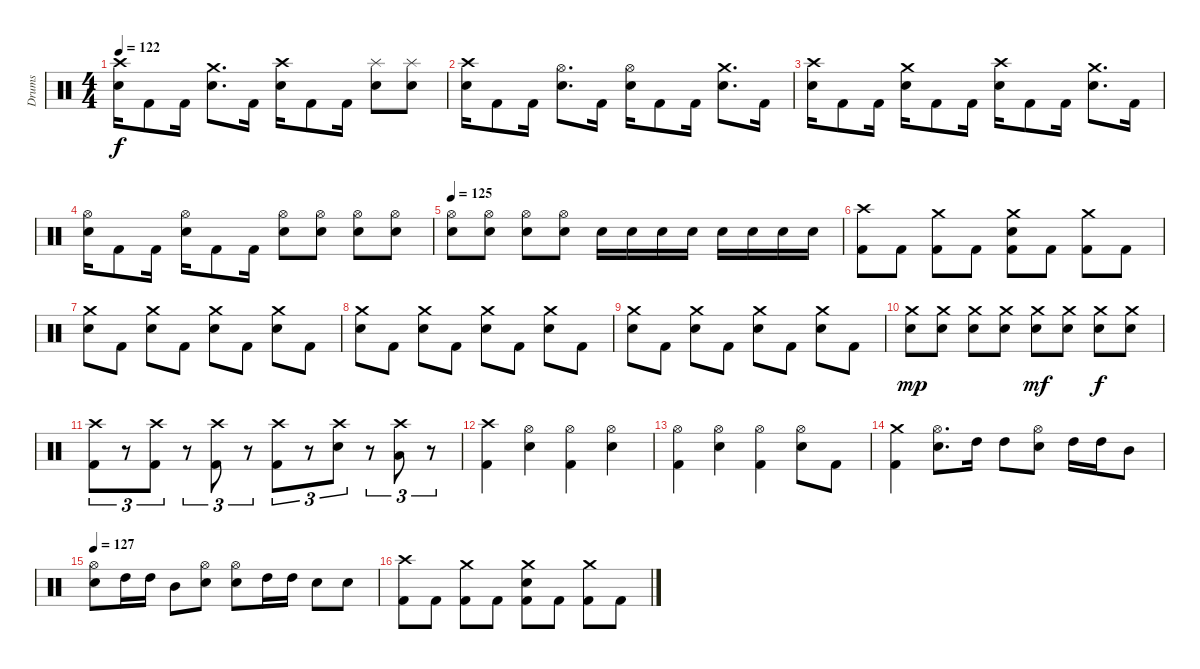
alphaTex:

\track ("Drums" "Drums") {instrument percussion}
\staff {score}
\articulation defaults
\ts (4 4)
\tempo 122
\clef neutral
\ks c
("Crash high (hit)" "Snare (hit) 2").16{dy f} "Kick (hit) 2".8 "Kick (hit) 2".16 ("Crash medium (hit)" "Snare (hit) 2").8{d} "Kick (hit) 2".16 ("Crash high (hit)" "Snare (hit) 2").16 "Kick (hit) 2".8 "Kick (hit) 2".16 ("Splash (hit)" "Snare (hit) 2").8 ("Splash (hit)" "Snare (hit) 2").8 |
("Crash high (hit)" "Snare (hit) 2").16 "Kick (hit) 2".8 "Kick (hit) 2".16 ("Hi-Hat (open)" "Snare (hit) 2").8{d} "Kick (hit) 2".16 ("Hi-Hat (open)" "Snare (hit) 2").16 "Kick (hit) 2".8 "Kick (hit) 2".16 ("Crash medium (hit)" "Snare (hit) 2").8{d} "Kick (hit) 2".16 |
("Crash high (hit)" "Snare (hit) 2").16 "Kick (hit) 2".8 "Kick (hit) 2".16 ("Crash medium (hit)" "Snare (hit) 2").16 "Kick (hit) 2".8 "Kick (hit) 2".16 ("Crash high (hit)" "Snare (hit) 2").16 "Kick (hit) 2".8 "Kick (hit) 2".16 ("Crash medium (hit)" "Snare (hit) 2").8{d} "Kick (hit) 2".16 |
("Hi-Hat (open)" "Snare (hit) 2").16 "Kick (hit) 2".8 "Kick (hit) 2".16 ("Hi-Hat (open)" "Snare (hit) 2").16 "Kick (hit) 2".8 "Kick (hit) 2".16 ("Hi-Hat (open)" "Snare (hit) 2").8 ("Hi-Hat (open)" "Snare (hit) 2").8 ("Hi-Hat (open)" "Snare (hit) 2").8 ("Hi-Hat (open)" "Snare (hit) 2").8 |
\tempo 125
("Hi-Hat (open)" "Snare (hit) 2").8 ("Hi-Hat (open)" "Snare (hit) 2").8 ("Hi-Hat (open)" "Snare (hit) 2").8 ("Hi-Hat (open)" "Snare (hit) 2").8 "Snare (hit) 2".16 "Snare (hit) 2".16 "Snare (hit) 2".16 "Snare (hit) 2".16 "Snare (hit) 2".16 "Snare (hit) 2".16 "Snare (hit) 2".16 "Snare (hit) 2".16 |
("Crash high (hit)" "Kick (hit) 2").8 "Kick (hit) 2".8 ("Crash medium (hit)" "Kick (hit) 2").8 "Kick (hit) 2".8 ("Crash medium (hit)" "Snare (hit) 2" "Kick (hit) 2").8 "Kick (hit) 2".8 ("Crash medium (hit)" "Kick (hit) 2").8 "Kick (hit) 2".8 |
("Crash medium (hit)" "Snare (hit) 2").8 "Kick (hit) 2".8 ("Crash medium (hit)" "Snare (hit) 2").8 "Kick (hit) 2".8 ("Crash medium (hit)" "Snare (hit) 2").8 "Kick (hit) 2".8 ("Crash medium (hit)" "Snare (hit) 2").8 "Kick (hit) 2".8 |
("Crash medium (hit)" "Snare (hit) 2").8 "Kick (hit) 2".8 ("Crash medium (hit)" "Snare (hit) 2").8 "Kick (hit) 2".8 ("Crash medium (hit)" "Snare (hit) 2").8 "Kick (hit) 2".8 ("Crash medium (hit)" "Snare (hit) 2").8 "Kick (hit) 2".8 |
("Crash medium (hit)" "Snare (hit) 2").8 "Kick (hit) 2".8 ("Crash medium (hit)" "Snare (hit) 2").8 "Kick (hit) 2".8 ("Crash medium (hit)" "Snare (hit) 2").8 "Kick (hit) 2".8 ("Crash medium (hit)" "Snare (hit) 2").8 "Kick (hit) 2".8 |
("Crash medium (hit)" "Snare (hit) 2").8{dy mp} ("Crash medium (hit)" "Snare (hit) 2").8 ("Crash medium (hit)" "Snare (hit) 2").8 ("Crash medium (hit)" "Snare (hit) 2").8 ("Crash medium (hit)" "Snare (hit) 2").8{dy mf} ("Crash medium (hit)" "Snare (hit) 2").8 ("Crash medium (hit)" "Snare (hit) 2").8{dy f} ("Crash medium (hit)" "Snare (hit) 2").8 |
("Crash high (hit)" "Kick (hit) 2").8{tu (3 2)} r.8{tu (3 2)} ("Crash high (hit)" "Kick (hit) 2").8{tu (3 2)} r.8{tu (3 2)} ("Crash high (hit)" "Kick (hit) 2").8{tu (3 2)} r.8{tu (3 2)} ("Crash high (hit)" "Kick (hit) 2").8{tu (3 2)} r.8{tu (3 2)} ("Crash high (hit)" "Snare (hit) 2").8{tu (3 2)} r.8{tu (3 2)} ("Crash high (hit)" "Low Tom (hit)").8{tu (3 2)} r.8{tu (3 2)} |
("Crash high (hit)" "Kick (hit) 2").4 ("Hi-Hat (open)" "Snare (hit) 2").4 ("Hi-Hat (open)" "Kick (hit) 2").4 ("Hi-Hat (open)" "Snare (hit) 2").4 |
("Hi-Hat (open)" "Kick (hit) 2").4 ("Hi-Hat (open)" "Snare (hit) 2").4 ("Hi-Hat (open)" "Kick (hit) 2").4 ("Hi-Hat (open)" "Snare (hit) 2").8 "Kick (hit) 2".8 |
("Crash medium (hit)" "Kick (hit) 2").4 ("Hi-Hat (open)" "Snare (hit) 2").8{d} "High Tom (hit)".16 "High Tom (hit)".8 ("Hi-Hat (open)" "Snare (hit) 2").8 "High Tom (hit)".16 "High Tom (hit)".16 "Mid Tom (hit)".8 |
\tempo 127
("Hi-Hat (open)" "Snare (hit) 2").8 "High Tom (hit)".16 "High Tom (hit)".16 "Mid Tom (hit)".8 ("Hi-Hat (open)" "Snare (hit) 2").8 ("Hi-Hat (open)" "Snare (hit) 2").8 "High Tom (hit)".16 "High Tom (hit)".16 "Snare (hit) 2".8 "Snare (hit) 2".8 |
("Crash high (hit)" "Kick (hit) 2").8 "Kick (hit) 2".8 ("Crash medium (hit)" "Kick (hit) 2").8 "Kick (hit) 2".8 ("Crash medium (hit)" "Snare (hit) 2" "Kick (hit) 2").8 "Kick (hit) 2".8 ("Crash medium (hit)" "Kick (hit) 2").8 "Kick (hit) 2".8
